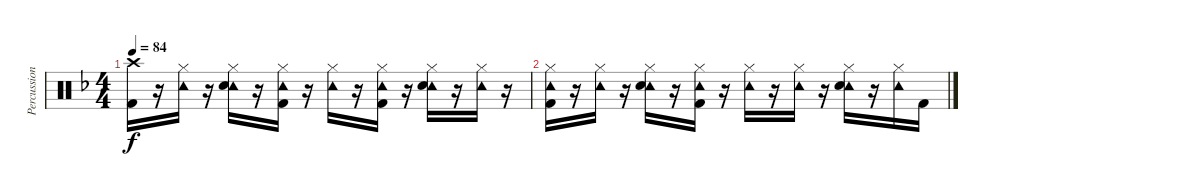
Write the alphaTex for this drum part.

\track ("Percussion" "Percussion") {instrument percussion}
\staff {score}
\articulation defaults
\ts (4 4)
\tempo 84
\clef neutral
\ks f
("Crash high (hit)" "Kick (hit) 2").16{dy f volume 0} r.16 ("Hi-Hat (closed)" "Tambourine (hit)").16 r.16 ("Hi-Hat (closed)" "Tambourine (hit)" "Snare (hit) 2").16 r.16 ("Hi-Hat (closed)" "Tambourine (hit)" "Kick (hit) 2").16 r.16 ("Hi-Hat (closed)" "Tambourine (hit)").16 r.16 ("Hi-Hat (closed)" "Tambourine (hit)" "Kick (hit) 2").16 r.16 ("Hi-Hat (closed)" "Tambourine (hit)" "Snare (hit) 2").16 r.16 ("Hi-Hat (closed)" "Tambourine (hit)").16 r.16 |
("Hi-Hat (closed)" "Tambourine (hit)" "Kick (hit) 2").16{volume 0} r.16 ("Hi-Hat (closed)" "Tambourine (hit)").16 r.16 ("Hi-Hat (closed)" "Tambourine (hit)" "Snare (hit) 2").16 r.16 ("Hi-Hat (closed)" "Tambourine (hit)" "Kick (hit) 2").16 r.16 ("Hi-Hat (closed)" "Tambourine (hit)").16 r.16 ("Hi-Hat (closed)" "Tambourine (hit)").16 r.16 ("Hi-Hat (closed)" "Tambourine (hit)" "Snare (hit) 2").16 r.16 ("Hi-Hat (closed)" "Tambourine (hit)").16 "Kick (hit) 2".16
